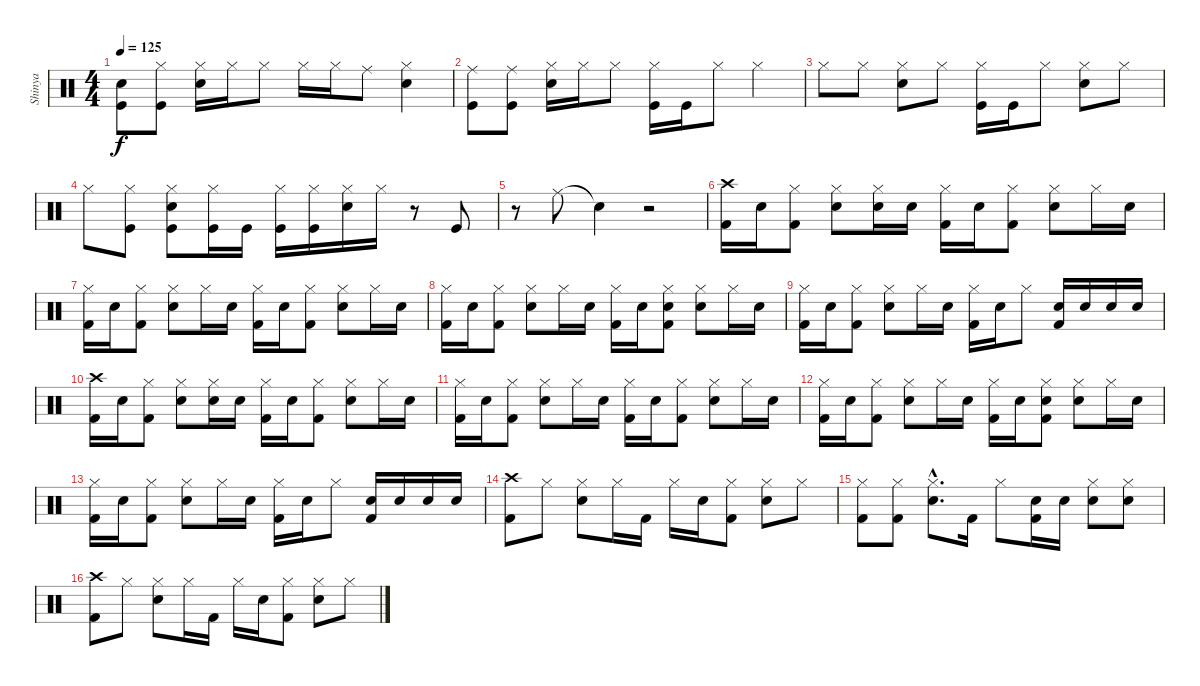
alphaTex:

\track ("Shinya" "Shinya") {instrument percussion}
\staff {score}
\articulation defaults
\ts (4 4)
\tempo 125
\clef neutral
\ks c
("Snare (hit)"{t} "Kick (hit)").8{dy f} ("Hi-Hat (closed)" "Kick (hit)").8 ("Hi-Hat (closed)" "Electric Snare (hit)").16 "Hi-Hat (closed)".16 "Hi-Hat (closed)".8 "Hi-Hat (closed)".16 "Hi-Hat (closed)".16 "Ride (middle)".8 ("Hi-Hat (closed)" "Electric Snare (hit)").4 |
("Ride (middle)" "Kick (hit)").8 ("Ride (middle)" "Kick (hit)").8 ("Hi-Hat (closed)" "Electric Snare (hit)").16 "Hi-Hat (closed)".16 "Hi-Hat (closed)".8 ("Hi-Hat (closed)" "Kick (hit)").16 "Kick (hit)".16 "Hi-Hat (closed)".8 "Hi-Hat (closed)".4 |
"Hi-Hat (closed)".8 "Hi-Hat (closed)".8 ("Electric Snare (hit)" "Hi-Hat (closed)").8 "Hi-Hat (closed)".8 ("Hi-Hat (closed)" "Kick (hit)").16 "Kick (hit)".16 "Hi-Hat (closed)".8 ("Hi-Hat (closed)" "Electric Snare (hit)").8 "Hi-Hat (closed)".8 |
"Hi-Hat (closed)".8 ("Hi-Hat (closed)" "Kick (hit)").8 ("Hi-Hat (closed)" "Electric Snare (hit)" "Kick (hit)").8 ("Hi-Hat (closed)" "Kick (hit)").16 "Kick (hit)".16 ("Hi-Hat (closed)" "Kick (hit)").16 ("Hi-Hat (closed)" "Kick (hit)").16 ("Hi-Hat (closed)" "Electric Snare (hit)").16 "Hi-Hat (closed)".16 r.8 "Kick (hit)".8 |
r.8 "Ride (middle)".8 "Snare (hit)"{t}.4 r.2 |
("Crash high (hit)" "Kick (hit) 2").16 "Snare (hit) 2".16 ("Hi-Hat (closed)" "Kick (hit) 2").8 ("Hi-Hat (closed)" "Snare (hit) 2").8 ("Hi-Hat (closed)" "Snare (hit) 2").16 "Snare (hit) 2".16 ("Hi-Hat (closed)" "Kick (hit) 2").16 "Snare (hit) 2".16 ("Hi-Hat (closed)" "Kick (hit) 2").8 ("Hi-Hat (closed)" "Snare (hit) 2").8 "Hi-Hat (closed)".16 "Snare (hit) 2".16 |
("Hi-Hat (closed)" "Kick (hit) 2").16 "Snare (hit) 2".16 ("Hi-Hat (closed)" "Kick (hit) 2").8 ("Hi-Hat (closed)" "Snare (hit) 2").8 "Hi-Hat (closed)".16 "Snare (hit) 2".16 ("Hi-Hat (closed)" "Kick (hit) 2").16 "Snare (hit) 2".16 ("Hi-Hat (closed)" "Kick (hit) 2").8 ("Hi-Hat (closed)" "Snare (hit) 2").8 "Hi-Hat (closed)".16 "Snare (hit) 2".16 |
("Hi-Hat (closed)" "Kick (hit) 2").16 "Snare (hit) 2".16 ("Hi-Hat (closed)" "Kick (hit) 2").8 ("Hi-Hat (closed)" "Snare (hit) 2").8 "Hi-Hat (closed)".16 "Snare (hit) 2".16 ("Hi-Hat (closed)" "Kick (hit) 2").16 "Snare (hit) 2".16 ("Hi-Hat (closed)" "Kick (hit) 2" "Snare (hit) 2").8 ("Hi-Hat (closed)" "Snare (hit) 2").8 "Hi-Hat (closed)".16 "Snare (hit) 2".16 |
("Hi-Hat (closed)" "Kick (hit) 2").16 "Snare (hit) 2".16 ("Hi-Hat (closed)" "Kick (hit) 2").8 ("Hi-Hat (closed)" "Snare (hit) 2").8 "Hi-Hat (closed)".16 "Snare (hit) 2".16 ("Hi-Hat (closed)" "Kick (hit) 2").16 "Snare (hit) 2".16 "Hi-Hat (closed)".8 ("Snare (hit) 2" "Kick (hit) 2").16 "Snare (hit) 2".16 "Snare (hit) 2".16 "Snare (hit) 2".16 |
("Crash high (hit)" "Kick (hit) 2").16 "Snare (hit) 2".16 ("Hi-Hat (closed)" "Kick (hit) 2").8 ("Hi-Hat (closed)" "Snare (hit) 2").8 ("Hi-Hat (closed)" "Snare (hit) 2").16 "Snare (hit) 2".16 ("Hi-Hat (closed)" "Kick (hit) 2").16 "Snare (hit) 2".16 ("Hi-Hat (closed)" "Kick (hit) 2").8 ("Hi-Hat (closed)" "Snare (hit) 2").8 "Hi-Hat (closed)".16 "Snare (hit) 2".16 |
("Hi-Hat (closed)" "Kick (hit) 2").16 "Snare (hit) 2".16 ("Hi-Hat (closed)" "Kick (hit) 2").8 ("Hi-Hat (closed)" "Snare (hit) 2").8 "Hi-Hat (closed)".16 "Snare (hit) 2".16 ("Hi-Hat (closed)" "Kick (hit) 2").16 "Snare (hit) 2".16 ("Hi-Hat (closed)" "Kick (hit) 2").8 ("Hi-Hat (closed)" "Snare (hit) 2").8 "Hi-Hat (closed)".16 "Snare (hit) 2".16 |
("Hi-Hat (closed)" "Kick (hit) 2").16 "Snare (hit) 2".16 ("Hi-Hat (closed)" "Kick (hit) 2").8 ("Hi-Hat (closed)" "Snare (hit) 2").8 "Hi-Hat (closed)".16 "Snare (hit) 2".16 ("Hi-Hat (closed)" "Kick (hit) 2").16 "Snare (hit) 2".16 ("Hi-Hat (closed)" "Kick (hit) 2" "Snare (hit) 2").8 ("Hi-Hat (closed)" "Snare (hit) 2").8 "Hi-Hat (closed)".16 "Snare (hit) 2".16 |
("Hi-Hat (closed)" "Kick (hit) 2").16 "Snare (hit) 2".16 ("Hi-Hat (closed)" "Kick (hit) 2").8 ("Hi-Hat (closed)" "Snare (hit) 2").8 "Hi-Hat (closed)".16 "Snare (hit) 2".16 ("Hi-Hat (closed)" "Kick (hit) 2").16 "Snare (hit) 2".16 "Hi-Hat (closed)".8 ("Snare (hit) 2" "Kick (hit) 2").16 "Snare (hit) 2".16 "Snare (hit) 2".16 "Snare (hit) 2".16 |
("Kick (hit) 2" "Crash high (hit)").8 "Hi-Hat (closed)".8 ("Hi-Hat (closed)" "Snare (hit) 2").8 "Hi-Hat (closed)".16 "Kick (hit) 2".16 "Hi-Hat (closed)".16 "Snare (hit) 2".16 ("Hi-Hat (closed)" "Kick (hit) 2").8 ("Hi-Hat (closed)" "Snare (hit) 2").8 "Hi-Hat (closed)".8 |
("Hi-Hat (closed)" "Kick (hit) 2").8 ("Hi-Hat (closed)" "Kick (hit) 2").8 ("Hi-Hat (closed)"{hac} "Snare (hit) 2"{hac}).8{d} "Kick (hit) 2".16 "Hi-Hat (closed)".8 ("Snare (hit) 2" "Kick (hit) 2").16 "Snare (hit) 2".16 ("Hi-Hat (closed)" "Snare (hit) 2").8 ("Hi-Hat (closed)" "Snare (hit) 2").8 |
("Kick (hit) 2" "Crash high (hit)").8 "Hi-Hat (closed)".8 ("Hi-Hat (closed)" "Snare (hit) 2").8 "Hi-Hat (closed)".16 "Kick (hit) 2".16 "Hi-Hat (closed)".16 "Snare (hit) 2".16 ("Hi-Hat (closed)" "Kick (hit) 2").8 ("Hi-Hat (closed)" "Snare (hit) 2").8 "Hi-Hat (closed)".8
